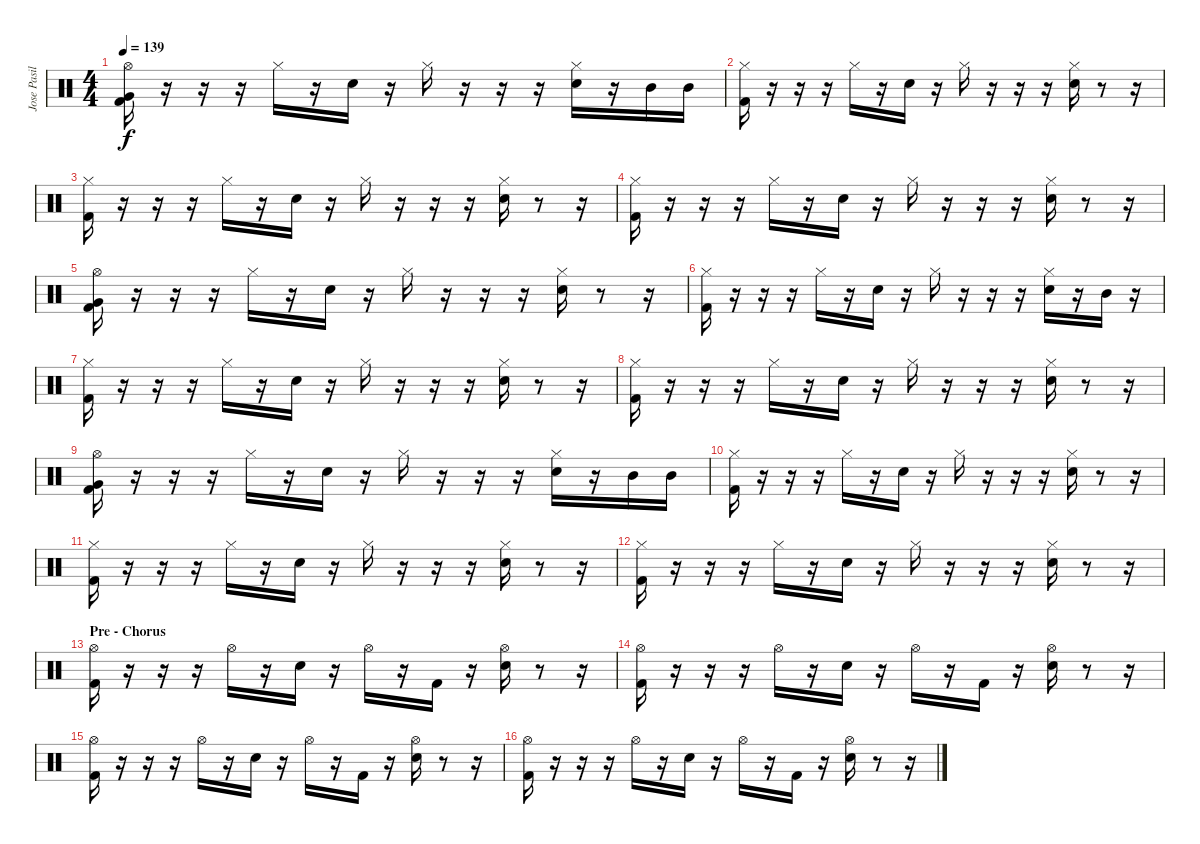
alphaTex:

\track ("Jose Pasillas - Drums" "Jose Pasil") {instrument percussion}
\staff {score}
\articulation defaults
\ts (4 4)
\tempo 139
\clef neutral
\ks c
("Hi-Hat (open)" "Very Low Tom (hit)" "Kick (hit) 2").16{dy f} r.16 r.16 r.16 "Hi-Hat (closed)".16 r.16 "Electric Snare (hit)".16 r.16 "Hi-Hat (closed)".16 r.16 r.16 r.16 ("Hi-Hat (closed)" "Electric Snare (hit)").16 r.16 "Mid Tom (hit)".16 "Mid Tom (hit)".16 |
("Hi-Hat (closed)" "Kick (hit) 2").16 r.16 r.16 r.16 "Hi-Hat (closed)".16 r.16 "Electric Snare (hit)".16 r.16 "Hi-Hat (closed)".16 r.16 r.16 r.16 ("Hi-Hat (closed)" "Electric Snare (hit)").16 r.8 r.16 |
("Hi-Hat (closed)" "Kick (hit) 2").16 r.16 r.16 r.16 "Hi-Hat (closed)".16 r.16 "Electric Snare (hit)".16 r.16 "Hi-Hat (closed)".16 r.16 r.16 r.16 ("Hi-Hat (closed)" "Electric Snare (hit)").16 r.8 r.16 |
("Hi-Hat (closed)" "Kick (hit) 2").16 r.16 r.16 r.16 "Hi-Hat (closed)".16 r.16 "Electric Snare (hit)".16 r.16 "Hi-Hat (closed)".16 r.16 r.16 r.16 ("Hi-Hat (closed)" "Electric Snare (hit)").16 r.8 r.16 |
("Hi-Hat (open)" "Very Low Tom (hit)" "Kick (hit) 2").16 r.16 r.16 r.16 "Hi-Hat (closed)".16 r.16 "Electric Snare (hit)".16 r.16 "Hi-Hat (closed)".16 r.16 r.16 r.16 ("Hi-Hat (closed)" "Electric Snare (hit)").16 r.8 r.16 |
("Hi-Hat (closed)" "Kick (hit) 2").16 r.16 r.16 r.16 "Hi-Hat (closed)".16 r.16 "Electric Snare (hit)".16 r.16 "Hi-Hat (closed)".16 r.16 r.16 r.16 ("Hi-Hat (closed)" "Electric Snare (hit)").16 r.16 "Mid Tom (hit)".16 r.16 |
("Hi-Hat (closed)" "Kick (hit) 2").16 r.16 r.16 r.16 "Hi-Hat (closed)".16 r.16 "Electric Snare (hit)".16 r.16 "Hi-Hat (closed)".16 r.16 r.16 r.16 ("Hi-Hat (closed)" "Electric Snare (hit)").16 r.8 r.16 |
("Hi-Hat (closed)" "Kick (hit) 2").16 r.16 r.16 r.16 "Hi-Hat (closed)".16 r.16 "Electric Snare (hit)".16 r.16 "Hi-Hat (closed)".16 r.16 r.16 r.16 ("Hi-Hat (closed)" "Electric Snare (hit)").16 r.8 r.16 |
("Hi-Hat (open)" "Very Low Tom (hit)" "Kick (hit) 2").16 r.16 r.16 r.16 "Hi-Hat (closed)".16 r.16 "Electric Snare (hit)".16 r.16 "Hi-Hat (closed)".16 r.16 r.16 r.16 ("Hi-Hat (closed)" "Electric Snare (hit)").16 r.16 "Mid Tom (hit)".16 "Mid Tom (hit)".16 |
("Hi-Hat (closed)" "Kick (hit) 2").16 r.16 r.16 r.16 "Hi-Hat (closed)".16 r.16 "Electric Snare (hit)".16 r.16 "Hi-Hat (closed)".16 r.16 r.16 r.16 ("Hi-Hat (closed)" "Electric Snare (hit)").16 r.8 r.16 |
("Hi-Hat (closed)" "Kick (hit) 2").16 r.16 r.16 r.16 "Hi-Hat (closed)".16 r.16 "Electric Snare (hit)".16 r.16 "Hi-Hat (closed)".16 r.16 r.16 r.16 ("Hi-Hat (closed)" "Electric Snare (hit)").16 r.8 r.16 |
("Hi-Hat (closed)" "Kick (hit) 2").16 r.16 r.16 r.16 "Hi-Hat (closed)".16 r.16 "Electric Snare (hit)".16 r.16 "Hi-Hat (closed)".16 r.16 r.16 r.16 ("Hi-Hat (closed)" "Electric Snare (hit)").16 r.8 r.16 |
\section ("" "Pre - Chorus")
("Hi-Hat (open)" "Kick (hit) 2").16 r.16 r.16 r.16 "Hi-Hat (open)".16 r.16 "Electric Snare (hit)".16 r.16 "Hi-Hat (open)".16 r.16 "Kick (hit) 2".16 r.16 ("Hi-Hat (open)" "Electric Snare (hit)").16 r.8 r.16 |
("Hi-Hat (open)" "Kick (hit) 2").16 r.16 r.16 r.16 "Hi-Hat (open)".16 r.16 "Electric Snare (hit)".16 r.16 "Hi-Hat (open)".16 r.16 "Kick (hit) 2".16 r.16 ("Hi-Hat (open)" "Electric Snare (hit)").16 r.8 r.16 |
("Hi-Hat (open)" "Kick (hit) 2").16 r.16 r.16 r.16 "Hi-Hat (open)".16 r.16 "Electric Snare (hit)".16 r.16 "Hi-Hat (open)".16 r.16 "Kick (hit) 2".16 r.16 ("Hi-Hat (open)" "Electric Snare (hit)").16 r.8 r.16 |
("Hi-Hat (open)" "Kick (hit) 2").16 r.16 r.16 r.16 "Hi-Hat (open)".16 r.16 "Electric Snare (hit)".16 r.16 "Hi-Hat (open)".16 r.16 "Kick (hit) 2".16 r.16 ("Hi-Hat (open)" "Electric Snare (hit)").16 r.8 r.16
